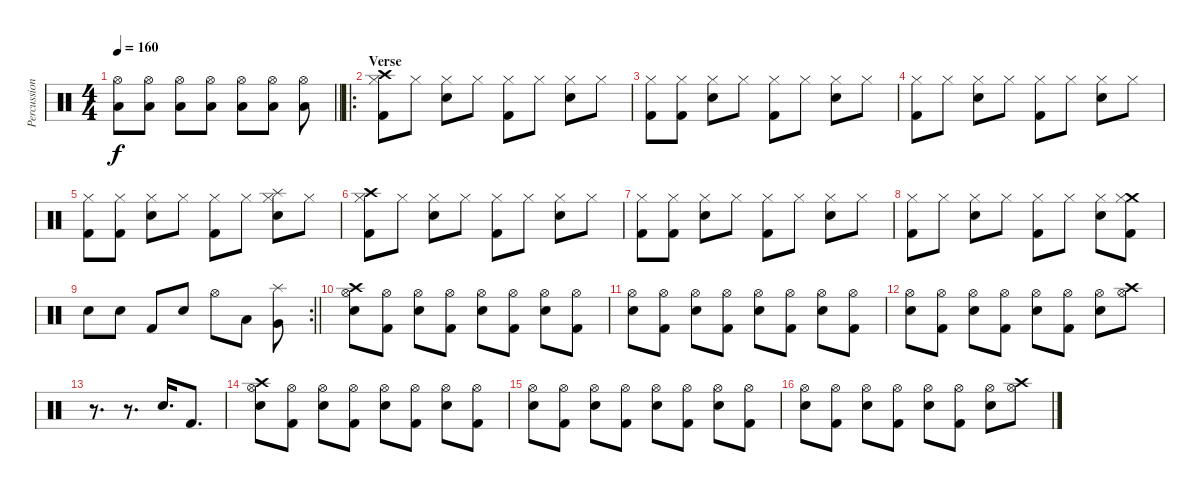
\track ("Percussion" "Percussion") {instrument percussion}
\staff {score}
\articulation defaults
\ts (4 4)
\tempo 160
\clef neutral
\barLineRight lightlight
\ks c
("Hi-Hat (open)" "Low Tom (hit)").8{dy f} ("Hi-Hat (open)" "Low Tom (hit)").8 ("Hi-Hat (open)" "Low Tom (hit)").8 ("Hi-Hat (open)" "Low Floor Tom (hit)").8 ("Hi-Hat (open)" "Low Floor Tom (hit)").8 ("Hi-Hat (open)" "Low Floor Tom (hit)").8 ("Hi-Hat (open)" "Low Floor Tom (hit)").8 |
\ro
\section ("" "Verse")
("Crash high (hit)" "Kick (hit) 2" "Hi-Hat (closed)").8 "Hi-Hat (closed)".8 ("Electric Snare (hit)" "Hi-Hat (closed)").8 "Hi-Hat (closed)".8 ("Kick (hit) 2" "Hi-Hat (closed)").8 "Hi-Hat (closed)".8 ("Electric Snare (hit)" "Hi-Hat (closed)").8 "Hi-Hat (closed)".8 |
("Kick (hit) 2" "Hi-Hat (closed)").8 ("Kick (hit) 2" "Hi-Hat (closed)").8 ("Electric Snare (hit)" "Hi-Hat (closed)").8 "Hi-Hat (closed)".8 ("Kick (hit) 2" "Hi-Hat (closed)").8 "Hi-Hat (closed)".8 ("Electric Snare (hit)" "Hi-Hat (closed)").8 "Hi-Hat (closed)".8 |
("Kick (hit) 2" "Hi-Hat (closed)").8 "Hi-Hat (closed)".8 ("Electric Snare (hit)" "Hi-Hat (closed)").8 "Hi-Hat (closed)".8 ("Kick (hit) 2" "Hi-Hat (closed)").8 "Hi-Hat (closed)".8 ("Electric Snare (hit)" "Hi-Hat (closed)").8 "Hi-Hat (closed)".8 |
("Kick (hit) 2" "Hi-Hat (closed)").8 ("Kick (hit) 2" "Hi-Hat (closed)").8 ("Electric Snare (hit)" "Hi-Hat (closed)").8 "Hi-Hat (closed)".8 ("Kick (hit) 2" "Hi-Hat (closed)").8 "Hi-Hat (closed)".8 ("Splash (hit)" "Electric Snare (hit)" "Hi-Hat (closed)").8 "Hi-Hat (closed)".8 |
("Crash high (hit)" "Kick (hit) 2" "Hi-Hat (closed)").8 "Hi-Hat (closed)".8 ("Electric Snare (hit)" "Hi-Hat (closed)").8 "Hi-Hat (closed)".8 ("Kick (hit) 2" "Hi-Hat (closed)").8 "Hi-Hat (closed)".8 ("Electric Snare (hit)" "Hi-Hat (closed)").8 "Hi-Hat (closed)".8 |
("Kick (hit) 2" "Hi-Hat (closed)").8 ("Kick (hit) 2" "Hi-Hat (closed)").8 ("Electric Snare (hit)" "Hi-Hat (closed)").8 "Hi-Hat (closed)".8 ("Kick (hit) 2" "Hi-Hat (closed)").8 "Hi-Hat (closed)".8 ("Electric Snare (hit)" "Hi-Hat (closed)").8 "Hi-Hat (closed)".8 |
("Kick (hit) 2" "Hi-Hat (closed)").8 "Hi-Hat (closed)".8 ("Electric Snare (hit)" "Hi-Hat (closed)").8 "Hi-Hat (closed)".8 ("Kick (hit) 2" "Hi-Hat (closed)").8 "Hi-Hat (closed)".8 ("Electric Snare (hit)" "Hi-Hat (closed)").8 ("Crash medium (hit)" "Kick (hit) 2" "Hi-Hat (closed)").8 |
\rc 2
\barLineRight lightlight "Electric Snare (hit)".8 "Electric Snare (hit)".8 "Kick (hit) 2".8 "Electric Snare (hit)".8 "Hi-Hat (open)".8 "Low Tom (hit)".8
("Splash (hit)" "Very Low Tom (hit)").8 |
("Crash high (hit)" "Electric Snare (hit)" "Hi-Hat (open)").8 ("Kick (hit) 2" "Hi-Hat (open)").8 ("Electric Snare (hit)" "Hi-Hat (open)").8 ("Kick (hit) 2" "Hi-Hat (open)").8 ("Electric Snare (hit)" "Hi-Hat (open)").8 ("Kick (hit) 2" "Hi-Hat (open)").8 ("Electric Snare (hit)" "Hi-Hat (open)").8 ("Kick (hit) 2" "Hi-Hat (open)").8 |
("Electric Snare (hit)" "Hi-Hat (open)").8 ("Kick (hit) 2" "Hi-Hat (open)").8 ("Electric Snare (hit)" "Hi-Hat (open)").8 ("Kick (hit) 2" "Hi-Hat (open)").8 ("Electric Snare (hit)" "Hi-Hat (open)").8 ("Kick (hit) 2" "Hi-Hat (open)").8 ("Electric Snare (hit)" "Hi-Hat (open)").8 ("Kick (hit) 2" "Hi-Hat (open)").8 |
("Electric Snare (hit)" "Hi-Hat (open)").8 ("Kick (hit) 2" "Hi-Hat (open)").8 ("Electric Snare (hit)" "Hi-Hat (open)").8 ("Kick (hit) 2" "Hi-Hat (open)").8 ("Electric Snare (hit)" "Hi-Hat (open)").8 ("Kick (hit) 2" "Hi-Hat (open)").8 ("Electric Snare (hit)" "Hi-Hat (open)").8 ("Crash high (hit)" "Hi-Hat (open)").8 |
r.8{d} r.8{d} "Electric Snare (hit)".16{d} "Kick (hit) 2".8{d} |
("Crash high (hit)" "Electric Snare (hit)" "Hi-Hat (open)").8 ("Kick (hit) 2" "Hi-Hat (open)").8 ("Electric Snare (hit)" "Hi-Hat (open)").8 ("Kick (hit) 2" "Hi-Hat (open)").8 ("Electric Snare (hit)" "Hi-Hat (open)").8 ("Kick (hit) 2" "Hi-Hat (open)").8 ("Electric Snare (hit)" "Hi-Hat (open)").8 ("Kick (hit) 2" "Hi-Hat (open)").8 |
("Electric Snare (hit)" "Hi-Hat (open)").8 ("Kick (hit) 2" "Hi-Hat (open)").8 ("Electric Snare (hit)" "Hi-Hat (open)").8 ("Kick (hit) 2" "Hi-Hat (open)").8 ("Electric Snare (hit)" "Hi-Hat (open)").8 ("Kick (hit) 2" "Hi-Hat (open)").8 ("Electric Snare (hit)" "Hi-Hat (open)").8 ("Kick (hit) 2" "Hi-Hat (open)").8 |
("Electric Snare (hit)" "Hi-Hat (open)").8 ("Kick (hit) 2" "Hi-Hat (open)").8 ("Electric Snare (hit)" "Hi-Hat (open)").8 ("Kick (hit) 2" "Hi-Hat (open)").8 ("Electric Snare (hit)" "Hi-Hat (open)").8 ("Kick (hit) 2" "Hi-Hat (open)").8 ("Electric Snare (hit)" "Hi-Hat (open)").8 ("Crash high (hit)" "Hi-Hat (open)").8
